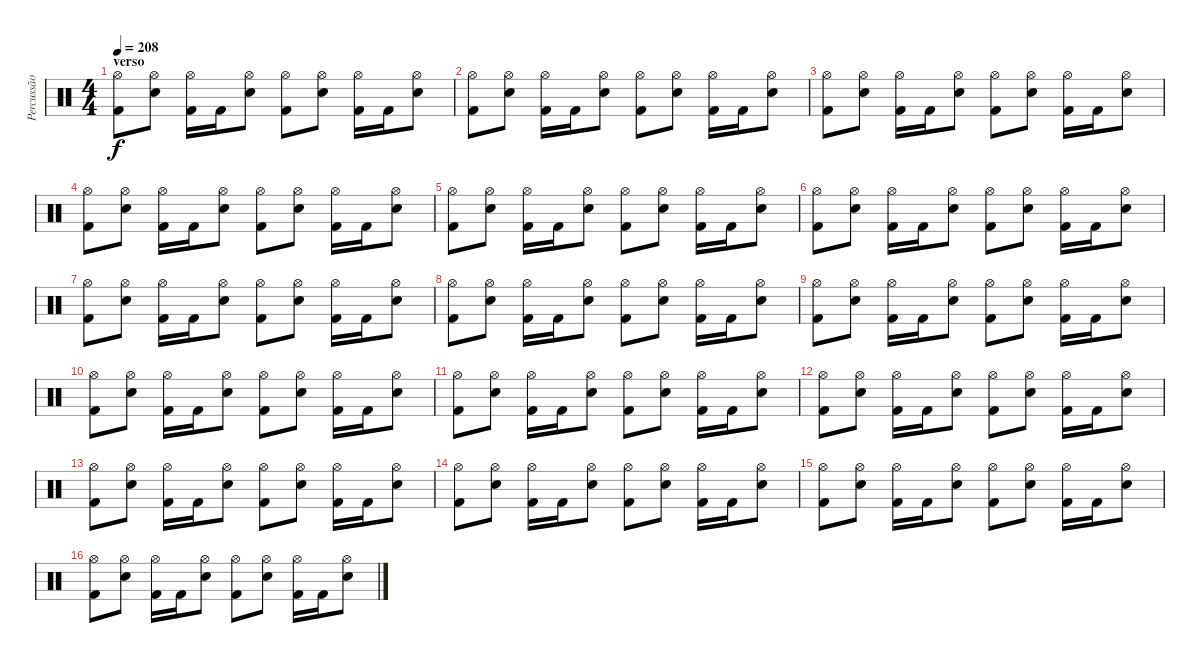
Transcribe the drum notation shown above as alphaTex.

\track ("Percussão" "Percussão") {instrument percussion}
\staff {score}
\articulation defaults
\ts (4 4)
\section ("" "verso")
\tempo 208
\clef neutral
\ks c
("Hi-Hat (open)" "Kick (hit) 2").8{dy f} ("Hi-Hat (open)" "Snare (hit) 2").8 ("Hi-Hat (open)" "Kick (hit) 2").16 "Kick (hit) 2".16 ("Hi-Hat (open)" "Snare (hit) 2").8 ("Hi-Hat (open)" "Kick (hit) 2").8 ("Hi-Hat (open)" "Snare (hit) 2").8 ("Hi-Hat (open)" "Kick (hit) 2").16 "Kick (hit) 2".16 ("Hi-Hat (open)" "Snare (hit) 2").8 |
("Hi-Hat (open)" "Kick (hit) 2").8 ("Hi-Hat (open)" "Snare (hit) 2").8 ("Hi-Hat (open)" "Kick (hit) 2").16 "Kick (hit) 2".16 ("Hi-Hat (open)" "Snare (hit) 2").8 ("Hi-Hat (open)" "Kick (hit) 2").8 ("Hi-Hat (open)" "Snare (hit) 2").8 ("Hi-Hat (open)" "Kick (hit) 2").16 "Kick (hit) 2".16 ("Hi-Hat (open)" "Snare (hit) 2").8 |
("Hi-Hat (open)" "Kick (hit) 2").8 ("Hi-Hat (open)" "Snare (hit) 2").8 ("Hi-Hat (open)" "Kick (hit) 2").16 "Kick (hit) 2".16 ("Hi-Hat (open)" "Snare (hit) 2").8 ("Hi-Hat (open)" "Kick (hit) 2").8 ("Hi-Hat (open)" "Snare (hit) 2").8 ("Hi-Hat (open)" "Kick (hit) 2").16 "Kick (hit) 2".16 ("Hi-Hat (open)" "Snare (hit) 2").8 |
("Hi-Hat (open)" "Kick (hit) 2").8 ("Hi-Hat (open)" "Snare (hit) 2").8 ("Hi-Hat (open)" "Kick (hit) 2").16 "Kick (hit) 2".16 ("Hi-Hat (open)" "Snare (hit) 2").8 ("Hi-Hat (open)" "Kick (hit) 2").8 ("Hi-Hat (open)" "Snare (hit) 2").8 ("Hi-Hat (open)" "Kick (hit) 2").16 "Kick (hit) 2".16 ("Hi-Hat (open)" "Snare (hit) 2").8 |
("Hi-Hat (open)" "Kick (hit) 2").8 ("Hi-Hat (open)" "Snare (hit) 2").8 ("Hi-Hat (open)" "Kick (hit) 2").16 "Kick (hit) 2".16 ("Hi-Hat (open)" "Snare (hit) 2").8 ("Hi-Hat (open)" "Kick (hit) 2").8 ("Hi-Hat (open)" "Snare (hit) 2").8 ("Hi-Hat (open)" "Kick (hit) 2").16 "Kick (hit) 2".16 ("Hi-Hat (open)" "Snare (hit) 2").8 |
("Hi-Hat (open)" "Kick (hit) 2").8 ("Hi-Hat (open)" "Snare (hit) 2").8 ("Hi-Hat (open)" "Kick (hit) 2").16 "Kick (hit) 2".16 ("Hi-Hat (open)" "Snare (hit) 2").8 ("Hi-Hat (open)" "Kick (hit) 2").8 ("Hi-Hat (open)" "Snare (hit) 2").8 ("Hi-Hat (open)" "Kick (hit) 2").16 "Kick (hit) 2".16 ("Hi-Hat (open)" "Snare (hit) 2").8 |
("Hi-Hat (open)" "Kick (hit) 2").8 ("Hi-Hat (open)" "Snare (hit) 2").8 ("Hi-Hat (open)" "Kick (hit) 2").16 "Kick (hit) 2".16 ("Hi-Hat (open)" "Snare (hit) 2").8 ("Hi-Hat (open)" "Kick (hit) 2").8 ("Hi-Hat (open)" "Snare (hit) 2").8 ("Hi-Hat (open)" "Kick (hit) 2").16 "Kick (hit) 2".16 ("Hi-Hat (open)" "Snare (hit) 2").8 |
("Hi-Hat (open)" "Kick (hit) 2").8 ("Hi-Hat (open)" "Snare (hit) 2").8 ("Hi-Hat (open)" "Kick (hit) 2").16 "Kick (hit) 2".16 ("Hi-Hat (open)" "Snare (hit) 2").8 ("Hi-Hat (open)" "Kick (hit) 2").8 ("Hi-Hat (open)" "Snare (hit) 2").8 ("Hi-Hat (open)" "Kick (hit) 2").16 "Kick (hit) 2".16 ("Hi-Hat (open)" "Snare (hit) 2").8 |
("Hi-Hat (open)" "Kick (hit) 2").8 ("Hi-Hat (open)" "Snare (hit) 2").8 ("Hi-Hat (open)" "Kick (hit) 2").16 "Kick (hit) 2".16 ("Hi-Hat (open)" "Snare (hit) 2").8 ("Hi-Hat (open)" "Kick (hit) 2").8 ("Hi-Hat (open)" "Snare (hit) 2").8 ("Hi-Hat (open)" "Kick (hit) 2").16 "Kick (hit) 2".16 ("Hi-Hat (open)" "Snare (hit) 2").8 |
("Hi-Hat (open)" "Kick (hit) 2").8 ("Hi-Hat (open)" "Snare (hit) 2").8 ("Hi-Hat (open)" "Kick (hit) 2").16 "Kick (hit) 2".16 ("Hi-Hat (open)" "Snare (hit) 2").8 ("Hi-Hat (open)" "Kick (hit) 2").8 ("Hi-Hat (open)" "Snare (hit) 2").8 ("Hi-Hat (open)" "Kick (hit) 2").16 "Kick (hit) 2".16 ("Hi-Hat (open)" "Snare (hit) 2").8 |
("Hi-Hat (open)" "Kick (hit) 2").8 ("Hi-Hat (open)" "Snare (hit) 2").8 ("Hi-Hat (open)" "Kick (hit) 2").16 "Kick (hit) 2".16 ("Hi-Hat (open)" "Snare (hit) 2").8 ("Hi-Hat (open)" "Kick (hit) 2").8 ("Hi-Hat (open)" "Snare (hit) 2").8 ("Hi-Hat (open)" "Kick (hit) 2").16 "Kick (hit) 2".16 ("Hi-Hat (open)" "Snare (hit) 2").8 |
("Hi-Hat (open)" "Kick (hit) 2").8 ("Hi-Hat (open)" "Snare (hit) 2").8 ("Hi-Hat (open)" "Kick (hit) 2").16 "Kick (hit) 2".16 ("Hi-Hat (open)" "Snare (hit) 2").8 ("Hi-Hat (open)" "Kick (hit) 2").8 ("Hi-Hat (open)" "Snare (hit) 2").8 ("Hi-Hat (open)" "Kick (hit) 2").16 "Kick (hit) 2".16 ("Hi-Hat (open)" "Snare (hit) 2").8 |
("Hi-Hat (open)" "Kick (hit) 2").8 ("Hi-Hat (open)" "Snare (hit) 2").8 ("Hi-Hat (open)" "Kick (hit) 2").16 "Kick (hit) 2".16 ("Hi-Hat (open)" "Snare (hit) 2").8 ("Hi-Hat (open)" "Kick (hit) 2").8 ("Hi-Hat (open)" "Snare (hit) 2").8 ("Hi-Hat (open)" "Kick (hit) 2").16 "Kick (hit) 2".16 ("Hi-Hat (open)" "Snare (hit) 2").8 |
("Hi-Hat (open)" "Kick (hit) 2").8 ("Hi-Hat (open)" "Snare (hit) 2").8 ("Hi-Hat (open)" "Kick (hit) 2").16 "Kick (hit) 2".16 ("Hi-Hat (open)" "Snare (hit) 2").8 ("Hi-Hat (open)" "Kick (hit) 2").8 ("Hi-Hat (open)" "Snare (hit) 2").8 ("Hi-Hat (open)" "Kick (hit) 2").16 "Kick (hit) 2".16 ("Hi-Hat (open)" "Snare (hit) 2").8 |
("Hi-Hat (open)" "Kick (hit) 2").8 ("Hi-Hat (open)" "Snare (hit) 2").8 ("Hi-Hat (open)" "Kick (hit) 2").16 "Kick (hit) 2".16 ("Hi-Hat (open)" "Snare (hit) 2").8 ("Hi-Hat (open)" "Kick (hit) 2").8 ("Hi-Hat (open)" "Snare (hit) 2").8 ("Hi-Hat (open)" "Kick (hit) 2").16 "Kick (hit) 2".16 ("Hi-Hat (open)" "Snare (hit) 2").8 |
("Hi-Hat (open)" "Kick (hit) 2").8 ("Hi-Hat (open)" "Snare (hit) 2").8 ("Hi-Hat (open)" "Kick (hit) 2").16 "Kick (hit) 2".16 ("Hi-Hat (open)" "Snare (hit) 2").8 ("Hi-Hat (open)" "Kick (hit) 2").8 ("Hi-Hat (open)" "Snare (hit) 2").8 ("Hi-Hat (open)" "Kick (hit) 2").16 "Kick (hit) 2".16 ("Hi-Hat (open)" "Snare (hit) 2").8
